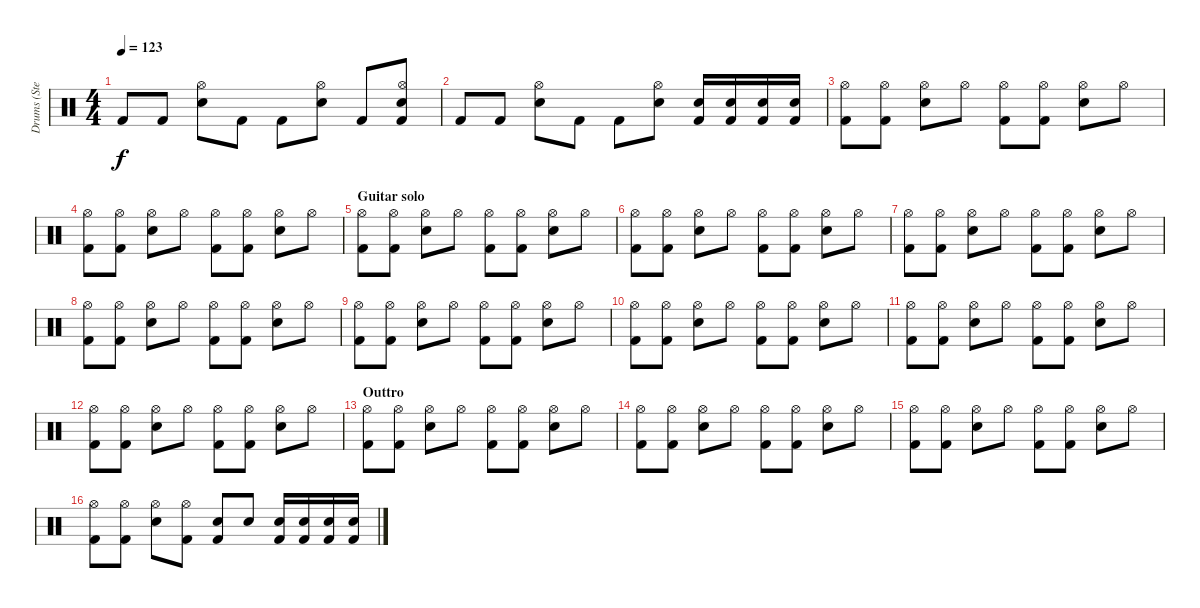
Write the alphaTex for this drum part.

\track ("Drums (Steve)" "Drums (Ste") {instrument percussion}
\staff {score}
\articulation defaults
\ts (4 4)
\tempo 123
\clef neutral
\ks c "Kick (hit) 2".8{dy f} "Kick (hit) 2".8
("Hi-Hat (open)" "Snare (hit) 2").8 "Kick (hit) 2".8 "Kick (hit) 2".8 ("Hi-Hat (open)" "Snare (hit) 2").8 "Kick (hit) 2".8 ("Hi-Hat (open)" "Snare (hit) 2" "Kick (hit) 2").8 |
"Kick (hit) 2".8 "Kick (hit) 2".8 ("Hi-Hat (open)" "Snare (hit) 2").8 "Kick (hit) 2".8 "Kick (hit) 2".8 ("Hi-Hat (open)" "Snare (hit) 2").8 ("Snare (hit) 2" "Kick (hit) 2").16 ("Snare (hit) 2" "Kick (hit) 2").16 ("Snare (hit) 2" "Kick (hit) 2").16 ("Snare (hit) 2" "Kick (hit) 2").16 |
("Hi-Hat (open)" "Kick (hit) 2").8 ("Hi-Hat (open)" "Kick (hit) 2").8 ("Hi-Hat (open)" "Snare (hit) 2").8 "Hi-Hat (open)".8 ("Hi-Hat (open)" "Kick (hit) 2").8 ("Hi-Hat (open)" "Kick (hit) 2").8 ("Hi-Hat (open)" "Snare (hit) 2").8 "Hi-Hat (open)".8 |
("Hi-Hat (open)" "Kick (hit) 2").8 ("Hi-Hat (open)" "Kick (hit) 2").8 ("Hi-Hat (open)" "Snare (hit) 2").8 "Hi-Hat (open)".8 ("Hi-Hat (open)" "Kick (hit) 2").8 ("Hi-Hat (open)" "Kick (hit) 2").8 ("Hi-Hat (open)" "Snare (hit) 2").8 "Hi-Hat (open)".8 |
\section ("" "Guitar solo")
("Hi-Hat (open)" "Kick (hit) 2").8 ("Hi-Hat (open)" "Kick (hit) 2").8 ("Hi-Hat (open)" "Snare (hit) 2").8 "Hi-Hat (open)".8 ("Hi-Hat (open)" "Kick (hit) 2").8 ("Hi-Hat (open)" "Kick (hit) 2").8 ("Hi-Hat (open)" "Snare (hit) 2").8 "Hi-Hat (open)".8 |
("Hi-Hat (open)" "Kick (hit) 2").8 ("Hi-Hat (open)" "Kick (hit) 2").8 ("Hi-Hat (open)" "Snare (hit) 2").8 "Hi-Hat (open)".8 ("Hi-Hat (open)" "Kick (hit) 2").8 ("Hi-Hat (open)" "Kick (hit) 2").8 ("Hi-Hat (open)" "Snare (hit) 2").8 "Hi-Hat (open)".8 |
("Hi-Hat (open)" "Kick (hit) 2").8 ("Hi-Hat (open)" "Kick (hit) 2").8 ("Hi-Hat (open)" "Snare (hit) 2").8 "Hi-Hat (open)".8 ("Hi-Hat (open)" "Kick (hit) 2").8 ("Hi-Hat (open)" "Kick (hit) 2").8 ("Hi-Hat (open)" "Snare (hit) 2").8 "Hi-Hat (open)".8 |
("Hi-Hat (open)" "Kick (hit) 2").8 ("Hi-Hat (open)" "Kick (hit) 2").8 ("Hi-Hat (open)" "Snare (hit) 2").8 "Hi-Hat (open)".8 ("Hi-Hat (open)" "Kick (hit) 2").8 ("Hi-Hat (open)" "Kick (hit) 2").8 ("Hi-Hat (open)" "Snare (hit) 2").8 "Hi-Hat (open)".8 |
("Hi-Hat (open)" "Kick (hit) 2").8 ("Hi-Hat (open)" "Kick (hit) 2").8 ("Hi-Hat (open)" "Snare (hit) 2").8 "Hi-Hat (open)".8 ("Hi-Hat (open)" "Kick (hit) 2").8 ("Hi-Hat (open)" "Kick (hit) 2").8 ("Hi-Hat (open)" "Snare (hit) 2").8 "Hi-Hat (open)".8 |
("Hi-Hat (open)" "Kick (hit) 2").8 ("Hi-Hat (open)" "Kick (hit) 2").8 ("Hi-Hat (open)" "Snare (hit) 2").8 "Hi-Hat (open)".8 ("Hi-Hat (open)" "Kick (hit) 2").8 ("Hi-Hat (open)" "Kick (hit) 2").8 ("Hi-Hat (open)" "Snare (hit) 2").8 "Hi-Hat (open)".8 |
("Hi-Hat (open)" "Kick (hit) 2").8 ("Hi-Hat (open)" "Kick (hit) 2").8 ("Hi-Hat (open)" "Snare (hit) 2").8 "Hi-Hat (open)".8 ("Hi-Hat (open)" "Kick (hit) 2").8 ("Hi-Hat (open)" "Kick (hit) 2").8 ("Hi-Hat (open)" "Snare (hit) 2").8 "Hi-Hat (open)".8 |
("Hi-Hat (open)" "Kick (hit) 2").8 ("Hi-Hat (open)" "Kick (hit) 2").8 ("Hi-Hat (open)" "Snare (hit) 2").8 "Hi-Hat (open)".8 ("Hi-Hat (open)" "Kick (hit) 2").8 ("Hi-Hat (open)" "Kick (hit) 2").8 ("Hi-Hat (open)" "Snare (hit) 2").8 "Hi-Hat (open)".8 |
\section ("" "Outtro")
("Hi-Hat (open)" "Kick (hit) 2").8 ("Hi-Hat (open)" "Kick (hit) 2").8 ("Hi-Hat (open)" "Snare (hit) 2").8 "Hi-Hat (open)".8 ("Hi-Hat (open)" "Kick (hit) 2").8 ("Hi-Hat (open)" "Kick (hit) 2").8 ("Hi-Hat (open)" "Snare (hit) 2").8 "Hi-Hat (open)".8 |
("Hi-Hat (open)" "Kick (hit) 2").8 ("Hi-Hat (open)" "Kick (hit) 2").8 ("Hi-Hat (open)" "Snare (hit) 2").8 "Hi-Hat (open)".8 ("Hi-Hat (open)" "Kick (hit) 2").8 ("Hi-Hat (open)" "Kick (hit) 2").8 ("Hi-Hat (open)" "Snare (hit) 2").8 "Hi-Hat (open)".8 |
("Hi-Hat (open)" "Kick (hit) 2").8 ("Hi-Hat (open)" "Kick (hit) 2").8 ("Hi-Hat (open)" "Snare (hit) 2").8 "Hi-Hat (open)".8 ("Hi-Hat (open)" "Kick (hit) 2").8 ("Hi-Hat (open)" "Kick (hit) 2").8 ("Hi-Hat (open)" "Snare (hit) 2").8 "Hi-Hat (open)".8 |
("Hi-Hat (open)" "Kick (hit) 2").8 ("Hi-Hat (open)" "Kick (hit) 2").8 ("Hi-Hat (open)" "Snare (hit) 2").8 ("Hi-Hat (open)" "Kick (hit) 2").8 ("Snare (hit) 2" "Kick (hit) 2").8 "Snare (hit) 2".8 ("Snare (hit) 2" "Kick (hit) 2").16 ("Snare (hit) 2" "Kick (hit) 2").16 ("Snare (hit) 2" "Kick (hit) 2").16 ("Snare (hit) 2" "Kick (hit) 2").16
